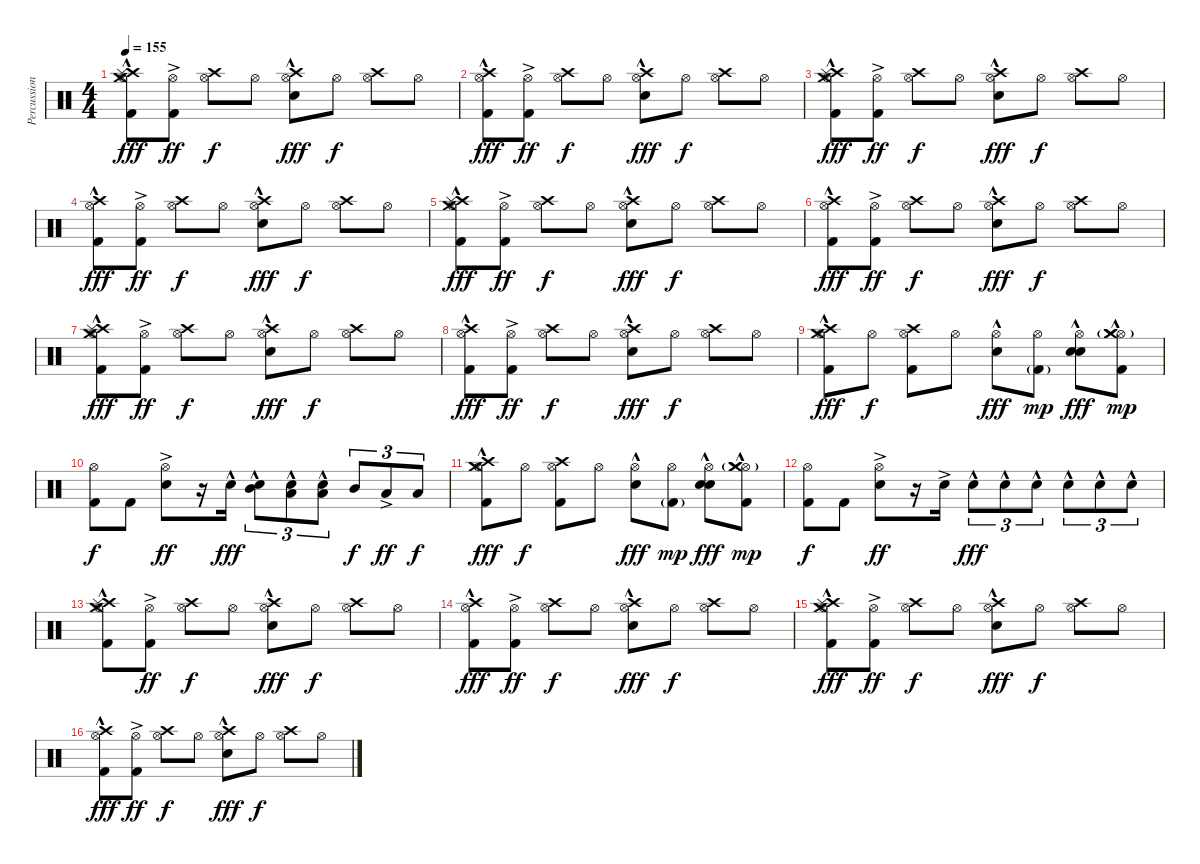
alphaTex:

\track ("Percussion" "Percussion") {instrument percussion}
\staff {score}
\articulation defaults
\ts (4 4)
\tempo 155
\clef neutral
\ks c
("Hi-Hat (open)" "Crash high (hit)" "Crash medium (hit)" "Splash (hit)" "Kick (hit) 2"{hac}).8{dy fff} ("Hi-Hat (open)" "Kick (hit) 2"{ac}).8{dy ff} ("Hi-Hat (open)" "Crash high (hit)").8{dy f} "Hi-Hat (open)".8 ("Hi-Hat (open)" "Crash high (hit)" "Electric Snare (hit)"{hac}).8{dy fff} "Hi-Hat (open)".8{dy f} ("Hi-Hat (open)" "Crash high (hit)").8 "Hi-Hat (open)".8 |
("Hi-Hat (open)" "Crash high (hit)" "Kick (hit) 2"{hac}).8{dy fff} ("Hi-Hat (open)" "Kick (hit) 2"{ac}).8{dy ff} ("Hi-Hat (open)" "Crash high (hit)").8{dy f} "Hi-Hat (open)".8 ("Hi-Hat (open)" "Crash high (hit)" "Electric Snare (hit)"{hac}).8{dy fff} "Hi-Hat (open)".8{dy f} ("Hi-Hat (open)" "Crash high (hit)").8 "Hi-Hat (open)".8 |
("Hi-Hat (open)" "Crash high (hit)" "Crash medium (hit)" "Splash (hit)" "Kick (hit) 2"{hac}).8{dy fff} ("Hi-Hat (open)" "Kick (hit) 2"{ac}).8{dy ff} ("Hi-Hat (open)" "Crash high (hit)").8{dy f} "Hi-Hat (open)".8 ("Hi-Hat (open)" "Crash high (hit)" "Electric Snare (hit)"{hac}).8{dy fff} "Hi-Hat (open)".8{dy f} ("Hi-Hat (open)" "Crash high (hit)").8 "Hi-Hat (open)".8 |
("Hi-Hat (open)" "Crash high (hit)" "Kick (hit) 2"{hac}).8{dy fff} ("Hi-Hat (open)" "Kick (hit) 2"{ac}).8{dy ff} ("Hi-Hat (open)" "Crash high (hit)").8{dy f} "Hi-Hat (open)".8 ("Hi-Hat (open)" "Crash high (hit)" "Electric Snare (hit)"{hac}).8{dy fff} "Hi-Hat (open)".8{dy f} ("Hi-Hat (open)" "Crash high (hit)").8 "Hi-Hat (open)".8 |
("Hi-Hat (open)" "Crash high (hit)" "Crash medium (hit)" "Splash (hit)" "Kick (hit) 2"{hac}).8{dy fff} ("Hi-Hat (open)" "Kick (hit) 2"{ac}).8{dy ff} ("Hi-Hat (open)" "Crash high (hit)").8{dy f} "Hi-Hat (open)".8 ("Hi-Hat (open)" "Crash high (hit)" "Electric Snare (hit)"{hac}).8{dy fff} "Hi-Hat (open)".8{dy f} ("Hi-Hat (open)" "Crash high (hit)").8 "Hi-Hat (open)".8 |
("Hi-Hat (open)" "Crash high (hit)" "Kick (hit) 2"{hac}).8{dy fff} ("Hi-Hat (open)" "Kick (hit) 2"{ac}).8{dy ff} ("Hi-Hat (open)" "Crash high (hit)").8{dy f} "Hi-Hat (open)".8 ("Hi-Hat (open)" "Crash high (hit)" "Electric Snare (hit)"{hac}).8{dy fff} "Hi-Hat (open)".8{dy f} ("Hi-Hat (open)" "Crash high (hit)").8 "Hi-Hat (open)".8 |
("Hi-Hat (open)" "Crash high (hit)" "Crash medium (hit)" "Splash (hit)" "Kick (hit) 2"{hac}).8{dy fff} ("Hi-Hat (open)" "Kick (hit) 2"{ac}).8{dy ff} ("Hi-Hat (open)" "Crash high (hit)").8{dy f} "Hi-Hat (open)".8 ("Hi-Hat (open)" "Crash high (hit)" "Electric Snare (hit)"{hac}).8{dy fff} "Hi-Hat (open)".8{dy f} ("Hi-Hat (open)" "Crash high (hit)").8 "Hi-Hat (open)".8 |
("Hi-Hat (open)" "Crash high (hit)" "Kick (hit) 2"{hac}).8{dy fff} ("Hi-Hat (open)" "Kick (hit) 2"{ac}).8{dy ff} ("Hi-Hat (open)" "Crash high (hit)").8{dy f} "Hi-Hat (open)".8 ("Hi-Hat (open)" "Crash high (hit)" "Electric Snare (hit)"{hac}).8{dy fff} "Hi-Hat (open)".8{dy f} ("Hi-Hat (open)" "Crash high (hit)").8 "Hi-Hat (open)".8 |
("Hi-Hat (open)" "Crash high (hit)"{hac} "Crash medium (hit)"{hac} "Kick (hit) 2"{hac}).8{dy fff} "Hi-Hat (open)".8{dy f} ("Hi-Hat (open)" "Crash high (hit)" "Kick (hit) 2").8 "Hi-Hat (open)".8 ("Hi-Hat (open)" "Electric Snare (hit)"{hac}).8{dy fff} ("Hi-Hat (open)" "Kick (hit) 2"{g}).8{dy mp} ("Hi-Hat (open)" "Snare (hit) 2"{hac} "Electric Snare (hit)"{hac}).8{dy fff} ("Hi-Hat (open)" "Crash medium (hit)"{hac} "Crash medium (hit)"{g} "Kick (hit) 2").8{dy mp} |
("Hi-Hat (open)" "Kick (hit) 2").8{dy f} "Kick (hit) 2".8 ("Hi-Hat (open)" "Electric Snare (hit)"{ac}).8{dy ff} r.16 "Electric Snare (hit)"{hac}.16{dy fff} ("Electric Snare (hit)"{hac} "Mid Tom (hit)"{hac}).8{tu (3 2)} ("Electric Snare (hit)" "Low Tom (hit)"{hac}).8{tu (3 2)} ("Electric Snare (hit)" "Low Floor Tom (hit)"{hac}).8{tu (3 2)} "Mid Tom (hit)".8{tu (3 2) dy f} "Low Tom (hit)"{ac}.8{tu (3 2) dy ff} "Low Floor Tom (hit)".8{tu (3 2) dy f} |
("Hi-Hat (open)" "Crash high (hit)"{hac} "Crash medium (hit)"{hac} "Kick (hit) 2"{hac}).8{dy fff} "Hi-Hat (open)".8{dy f} ("Hi-Hat (open)" "Crash high (hit)" "Kick (hit) 2").8 "Hi-Hat (open)".8 ("Hi-Hat (open)" "Electric Snare (hit)"{hac}).8{dy fff} ("Hi-Hat (open)" "Kick (hit) 2"{g}).8{dy mp} ("Hi-Hat (open)" "Snare (hit) 2"{hac} "Electric Snare (hit)"{hac}).8{dy fff} ("Hi-Hat (open)" "Crash medium (hit)"{hac} "Crash medium (hit)"{g} "Kick (hit) 2").8{dy mp} |
("Hi-Hat (open)" "Kick (hit) 2").8{dy f} "Kick (hit) 2".8 ("Hi-Hat (open)" "Electric Snare (hit)"{ac}).8{dy ff} r.16 "Electric Snare (hit)"{ac}.16 "Electric Snare (hit)"{hac}.8{tu (3 2) dy fff} "Electric Snare (hit)"{hac}.8{tu (3 2)} "Electric Snare (hit)"{hac}.8{tu (3 2)} "Electric Snare (hit)"{hac}.8{tu (3 2)} "Electric Snare (hit)"{hac}.8{tu (3 2)} "Electric Snare (hit)"{hac}.8{tu (3 2)} |
("Hi-Hat (open)" "Crash high (hit)" "Crash medium (hit)" "Splash (hit)" "Kick (hit) 2"{hac}).8 ("Hi-Hat (open)" "Kick (hit) 2"{ac}).8{dy ff} ("Hi-Hat (open)" "Crash high (hit)").8{dy f} "Hi-Hat (open)".8 ("Hi-Hat (open)" "Crash high (hit)" "Electric Snare (hit)"{hac}).8{dy fff} "Hi-Hat (open)".8{dy f} ("Hi-Hat (open)" "Crash high (hit)").8 "Hi-Hat (open)".8 |
("Hi-Hat (open)" "Crash high (hit)" "Kick (hit) 2"{hac}).8{dy fff} ("Hi-Hat (open)" "Kick (hit) 2"{ac}).8{dy ff} ("Hi-Hat (open)" "Crash high (hit)").8{dy f} "Hi-Hat (open)".8 ("Hi-Hat (open)" "Crash high (hit)" "Electric Snare (hit)"{hac}).8{dy fff} "Hi-Hat (open)".8{dy f} ("Hi-Hat (open)" "Crash high (hit)").8 "Hi-Hat (open)".8 |
("Hi-Hat (open)" "Crash high (hit)" "Crash medium (hit)" "Splash (hit)" "Kick (hit) 2"{hac}).8{dy fff} ("Hi-Hat (open)" "Kick (hit) 2"{ac}).8{dy ff} ("Hi-Hat (open)" "Crash high (hit)").8{dy f} "Hi-Hat (open)".8 ("Hi-Hat (open)" "Crash high (hit)" "Electric Snare (hit)"{hac}).8{dy fff} "Hi-Hat (open)".8{dy f} ("Hi-Hat (open)" "Crash high (hit)").8 "Hi-Hat (open)".8 |
("Hi-Hat (open)" "Crash high (hit)" "Kick (hit) 2"{hac}).8{dy fff} ("Hi-Hat (open)" "Kick (hit) 2"{ac}).8{dy ff} ("Hi-Hat (open)" "Crash high (hit)").8{dy f} "Hi-Hat (open)".8 ("Hi-Hat (open)" "Crash high (hit)" "Electric Snare (hit)"{hac}).8{dy fff} "Hi-Hat (open)".8{dy f} ("Hi-Hat (open)" "Crash high (hit)").8 "Hi-Hat (open)".8
